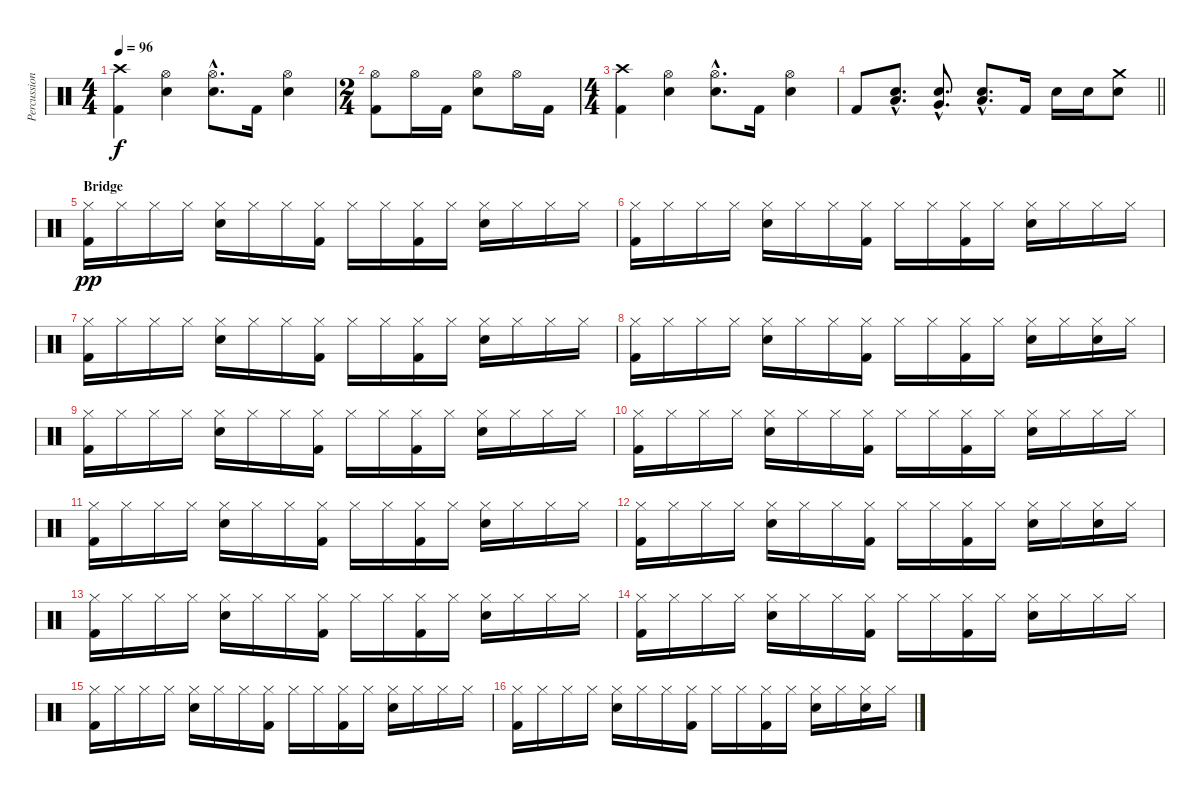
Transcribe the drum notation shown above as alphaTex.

\track ("Percussion" "Percussion") {instrument percussion}
\staff {score}
\articulation defaults
\ts (4 4)
\tempo 96
\clef neutral
\ks c
("Crash high (hit)" "Kick (hit) 2").4{dy f} ("Hi-Hat (open)" "Snare (hit) 2").4 ("Hi-Hat (open)"{hac} "Snare (hit) 2"{hac}).8{d} "Kick (hit) 2".16 ("Hi-Hat (open)" "Snare (hit) 2").4 |
\ts (2 4)
("Hi-Hat (open)" "Kick (hit) 2").8 "Hi-Hat (open)".16 "Kick (hit) 2".16 ("Hi-Hat (open)" "Snare (hit) 2").8 "Hi-Hat (open)".16 "Kick (hit) 2".16 |
\ts (4 4)
("Crash high (hit)" "Kick (hit) 2").4 ("Hi-Hat (open)" "Snare (hit) 2").4 ("Hi-Hat (open)"{hac} "Snare (hit) 2"{hac}).8{d} "Kick (hit) 2".16 ("Hi-Hat (open)" "Snare (hit) 2").4 |
\barLineRight lightlight "Kick (hit) 2".8
("Snare (hit) 2"{hac} "Low Tom (hit)"{hac}).8{d} ("Snare (hit) 2"{hac} "Very Low Tom (hit)"{hac}).8{d} ("Snare (hit) 2"{hac} "Low Floor Tom (hit)"{hac}).8{d} "Kick (hit) 2".16 "Snare (hit) 2".16 "Snare (hit) 2".16 ("Crash medium (hit)" "Snare (hit) 2").8 |
\section ("" "Bridge")
("Hi-Hat (closed)" "Kick (hit) 2").16{dy pp} "Hi-Hat (closed)".16 "Hi-Hat (closed)".16 "Hi-Hat (closed)".16 ("Hi-Hat (closed)" "Snare (hit) 2").16 "Hi-Hat (closed)".16 "Hi-Hat (closed)".16 ("Hi-Hat (closed)" "Kick (hit) 2").16 "Hi-Hat (closed)".16 "Hi-Hat (closed)".16 ("Hi-Hat (closed)" "Kick (hit) 2").16 "Hi-Hat (closed)".16 ("Hi-Hat (closed)" "Snare (hit) 2").16 "Hi-Hat (closed)".16 "Hi-Hat (closed)".16 "Hi-Hat (closed)".16 |
("Hi-Hat (closed)" "Kick (hit) 2").16 "Hi-Hat (closed)".16 "Hi-Hat (closed)".16 "Hi-Hat (closed)".16 ("Hi-Hat (closed)" "Snare (hit) 2").16 "Hi-Hat (closed)".16 "Hi-Hat (closed)".16 ("Hi-Hat (closed)" "Kick (hit) 2").16 "Hi-Hat (closed)".16 "Hi-Hat (closed)".16 ("Hi-Hat (closed)" "Kick (hit) 2").16 "Hi-Hat (closed)".16 ("Hi-Hat (closed)" "Snare (hit) 2").16 "Hi-Hat (closed)".16 "Hi-Hat (closed)".16 "Hi-Hat (closed)".16 |
("Hi-Hat (closed)" "Kick (hit) 2").16 "Hi-Hat (closed)".16 "Hi-Hat (closed)".16 "Hi-Hat (closed)".16 ("Hi-Hat (closed)" "Snare (hit) 2").16 "Hi-Hat (closed)".16 "Hi-Hat (closed)".16 ("Hi-Hat (closed)" "Kick (hit) 2").16 "Hi-Hat (closed)".16 "Hi-Hat (closed)".16 ("Hi-Hat (closed)" "Kick (hit) 2").16 "Hi-Hat (closed)".16 ("Hi-Hat (closed)" "Snare (hit) 2").16 "Hi-Hat (closed)".16 "Hi-Hat (closed)".16 "Hi-Hat (closed)".16 |
("Hi-Hat (closed)" "Kick (hit) 2").16 "Hi-Hat (closed)".16 "Hi-Hat (closed)".16 "Hi-Hat (closed)".16 ("Hi-Hat (closed)" "Snare (hit) 2").16 "Hi-Hat (closed)".16 "Hi-Hat (closed)".16 ("Hi-Hat (closed)" "Kick (hit) 2").16 "Hi-Hat (closed)".16 "Hi-Hat (closed)".16 ("Hi-Hat (closed)" "Kick (hit) 2").16 "Hi-Hat (closed)".16 ("Hi-Hat (closed)" "Snare (hit) 2").16 "Hi-Hat (closed)".16 ("Hi-Hat (closed)" "Snare (hit) 2").16 "Hi-Hat (closed)".16 |
("Hi-Hat (closed)" "Kick (hit) 2").16 "Hi-Hat (closed)".16 "Hi-Hat (closed)".16 "Hi-Hat (closed)".16 ("Hi-Hat (closed)" "Snare (hit) 2").16 "Hi-Hat (closed)".16 "Hi-Hat (closed)".16 ("Hi-Hat (closed)" "Kick (hit) 2").16 "Hi-Hat (closed)".16 "Hi-Hat (closed)".16 ("Hi-Hat (closed)" "Kick (hit) 2").16 "Hi-Hat (closed)".16 ("Hi-Hat (closed)" "Snare (hit) 2").16 "Hi-Hat (closed)".16 "Hi-Hat (closed)".16 "Hi-Hat (closed)".16 |
("Hi-Hat (closed)" "Kick (hit) 2").16 "Hi-Hat (closed)".16 "Hi-Hat (closed)".16 "Hi-Hat (closed)".16 ("Hi-Hat (closed)" "Snare (hit) 2").16 "Hi-Hat (closed)".16 "Hi-Hat (closed)".16 ("Hi-Hat (closed)" "Kick (hit) 2").16 "Hi-Hat (closed)".16 "Hi-Hat (closed)".16 ("Hi-Hat (closed)" "Kick (hit) 2").16 "Hi-Hat (closed)".16 ("Hi-Hat (closed)" "Snare (hit) 2").16 "Hi-Hat (closed)".16 "Hi-Hat (closed)".16 "Hi-Hat (closed)".16 |
("Hi-Hat (closed)" "Kick (hit) 2").16 "Hi-Hat (closed)".16 "Hi-Hat (closed)".16 "Hi-Hat (closed)".16 ("Hi-Hat (closed)" "Snare (hit) 2").16 "Hi-Hat (closed)".16 "Hi-Hat (closed)".16 ("Hi-Hat (closed)" "Kick (hit) 2").16 "Hi-Hat (closed)".16 "Hi-Hat (closed)".16 ("Hi-Hat (closed)" "Kick (hit) 2").16 "Hi-Hat (closed)".16 ("Hi-Hat (closed)" "Snare (hit) 2").16 "Hi-Hat (closed)".16 "Hi-Hat (closed)".16 "Hi-Hat (closed)".16 |
("Hi-Hat (closed)" "Kick (hit) 2").16 "Hi-Hat (closed)".16 "Hi-Hat (closed)".16 "Hi-Hat (closed)".16 ("Hi-Hat (closed)" "Snare (hit) 2").16 "Hi-Hat (closed)".16 "Hi-Hat (closed)".16 ("Hi-Hat (closed)" "Kick (hit) 2").16 "Hi-Hat (closed)".16 "Hi-Hat (closed)".16 ("Hi-Hat (closed)" "Kick (hit) 2").16 "Hi-Hat (closed)".16 ("Hi-Hat (closed)" "Snare (hit) 2").16 "Hi-Hat (closed)".16 ("Hi-Hat (closed)" "Snare (hit) 2").16 "Hi-Hat (closed)".16 |
("Hi-Hat (closed)" "Kick (hit) 2").16 "Hi-Hat (closed)".16 "Hi-Hat (closed)".16 "Hi-Hat (closed)".16 ("Hi-Hat (closed)" "Snare (hit) 2").16 "Hi-Hat (closed)".16 "Hi-Hat (closed)".16 ("Hi-Hat (closed)" "Kick (hit) 2").16 "Hi-Hat (closed)".16 "Hi-Hat (closed)".16 ("Hi-Hat (closed)" "Kick (hit) 2").16 "Hi-Hat (closed)".16 ("Hi-Hat (closed)" "Snare (hit) 2").16 "Hi-Hat (closed)".16 "Hi-Hat (closed)".16 "Hi-Hat (closed)".16 |
("Hi-Hat (closed)" "Kick (hit) 2").16 "Hi-Hat (closed)".16 "Hi-Hat (closed)".16 "Hi-Hat (closed)".16 ("Hi-Hat (closed)" "Snare (hit) 2").16 "Hi-Hat (closed)".16 "Hi-Hat (closed)".16 ("Hi-Hat (closed)" "Kick (hit) 2").16 "Hi-Hat (closed)".16 "Hi-Hat (closed)".16 ("Hi-Hat (closed)" "Kick (hit) 2").16 "Hi-Hat (closed)".16 ("Hi-Hat (closed)" "Snare (hit) 2").16 "Hi-Hat (closed)".16 "Hi-Hat (closed)".16 "Hi-Hat (closed)".16 |
("Hi-Hat (closed)" "Kick (hit) 2").16 "Hi-Hat (closed)".16 "Hi-Hat (closed)".16 "Hi-Hat (closed)".16 ("Hi-Hat (closed)" "Snare (hit) 2").16 "Hi-Hat (closed)".16 "Hi-Hat (closed)".16 ("Hi-Hat (closed)" "Kick (hit) 2").16 "Hi-Hat (closed)".16 "Hi-Hat (closed)".16 ("Hi-Hat (closed)" "Kick (hit) 2").16 "Hi-Hat (closed)".16 ("Hi-Hat (closed)" "Snare (hit) 2").16 "Hi-Hat (closed)".16 "Hi-Hat (closed)".16 "Hi-Hat (closed)".16 |
("Hi-Hat (closed)" "Kick (hit) 2").16 "Hi-Hat (closed)".16 "Hi-Hat (closed)".16 "Hi-Hat (closed)".16 ("Hi-Hat (closed)" "Snare (hit) 2").16 "Hi-Hat (closed)".16 "Hi-Hat (closed)".16 ("Hi-Hat (closed)" "Kick (hit) 2").16 "Hi-Hat (closed)".16 "Hi-Hat (closed)".16 ("Hi-Hat (closed)" "Kick (hit) 2").16 "Hi-Hat (closed)".16 ("Hi-Hat (closed)" "Snare (hit) 2").16 "Hi-Hat (closed)".16 ("Hi-Hat (closed)" "Snare (hit) 2").16 "Hi-Hat (closed)".16
